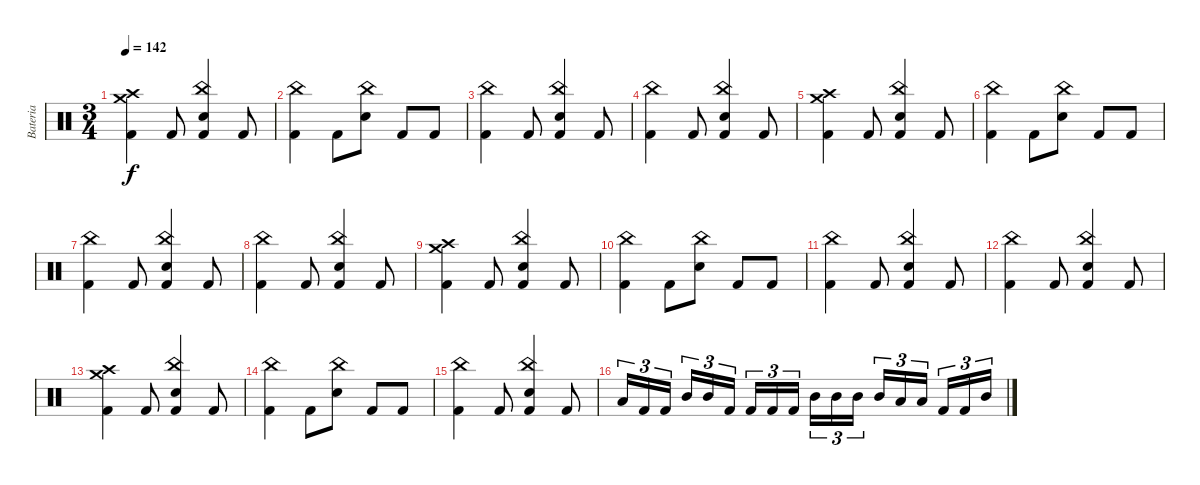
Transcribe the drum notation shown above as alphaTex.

\track ("Bateria" "Bateria") {instrument percussion}
\staff {score}
\articulation defaults
\ts (3 4)
\tempo 142
\clef neutral
\ks c
("Crash high (hit)" "Crash medium (hit)" "Kick (hit) 2").4{dy f} "Kick (hit) 2".8 ("China (hit)" "Snare (hit) 2" "Kick (hit) 2").4 "Kick (hit) 2".8 |
("China (hit)" "Kick (hit) 2").4 "Kick (hit) 2".8 ("China (hit)" "Snare (hit) 2").8 "Kick (hit) 2".8 "Kick (hit) 2".8 |
("China (hit)" "Kick (hit) 2").4 "Kick (hit) 2".8 ("China (hit)" "Snare (hit) 2" "Kick (hit) 2").4 "Kick (hit) 2".8 |
("China (hit)" "Kick (hit) 2").4 "Kick (hit) 2".8 ("China (hit)" "Snare (hit) 2" "Kick (hit) 2").4 "Kick (hit) 2".8 |
("Crash high (hit)" "Crash medium (hit)" "Kick (hit) 2").4 "Kick (hit) 2".8 ("China (hit)" "Snare (hit) 2" "Kick (hit) 2").4 "Kick (hit) 2".8 |
("China (hit)" "Kick (hit) 2").4 "Kick (hit) 2".8 ("China (hit)" "Snare (hit) 2").8 "Kick (hit) 2".8 "Kick (hit) 2".8 |
("China (hit)" "Kick (hit) 2").4 "Kick (hit) 2".8 ("China (hit)" "Snare (hit) 2" "Kick (hit) 2").4 "Kick (hit) 2".8 |
("China (hit)" "Kick (hit) 2").4 "Kick (hit) 2".8 ("China (hit)" "Snare (hit) 2" "Kick (hit) 2").4 "Kick (hit) 2".8 |
("Crash high (hit)" "Crash medium (hit)" "Kick (hit) 2").4 "Kick (hit) 2".8 ("China (hit)" "Snare (hit) 2" "Kick (hit) 2").4 "Kick (hit) 2".8 |
("China (hit)" "Kick (hit) 2").4 "Kick (hit) 2".8 ("China (hit)" "Snare (hit) 2").8 "Kick (hit) 2".8 "Kick (hit) 2".8 |
("China (hit)" "Kick (hit) 2").4 "Kick (hit) 2".8 ("China (hit)" "Snare (hit) 2" "Kick (hit) 2").4 "Kick (hit) 2".8 |
("China (hit)" "Kick (hit) 2").4 "Kick (hit) 2".8 ("China (hit)" "Snare (hit) 2" "Kick (hit) 2").4 "Kick (hit) 2".8 |
("Crash high (hit)" "Crash medium (hit)" "Kick (hit) 2").4 "Kick (hit) 2".8 ("China (hit)" "Snare (hit) 2" "Kick (hit) 2").4 "Kick (hit) 2".8 |
("China (hit)" "Kick (hit) 2").4 "Kick (hit) 2".8 ("China (hit)" "Snare (hit) 2").8 "Kick (hit) 2".8 "Kick (hit) 2".8 |
("China (hit)" "Kick (hit) 2").4 "Kick (hit) 2".8 ("China (hit)" "Snare (hit) 2" "Kick (hit) 2").4 "Kick (hit) 2".8 |
"Low Tom (hit)".16{tu (3 2)} "Kick (hit) 2".16{tu (3 2)} "Kick (hit) 2".16{tu (3 2)} "Mid Tom (hit)".16{tu (3 2)} "Mid Tom (hit)".16{tu (3 2)} "Kick (hit) 2".16{tu (3 2)} "Kick (hit) 2".16{tu (3 2)} "Kick (hit) 2".16{tu (3 2)} "Kick (hit) 2".16{tu (3 2)} "Mid Tom (hit)".16{tu (3 2)} "Mid Tom (hit)".16{tu (3 2)} "Mid Tom (hit)".16{tu (3 2)} "Mid Tom (hit)".16{tu (3 2)} "Low Tom (hit)".16{tu (3 2)} "Low Tom (hit)".16{tu (3 2)} "Kick (hit) 2".16{tu (3 2)} "Kick (hit) 2".16{tu (3 2)} "Mid Tom (hit)".16{tu (3 2)}
